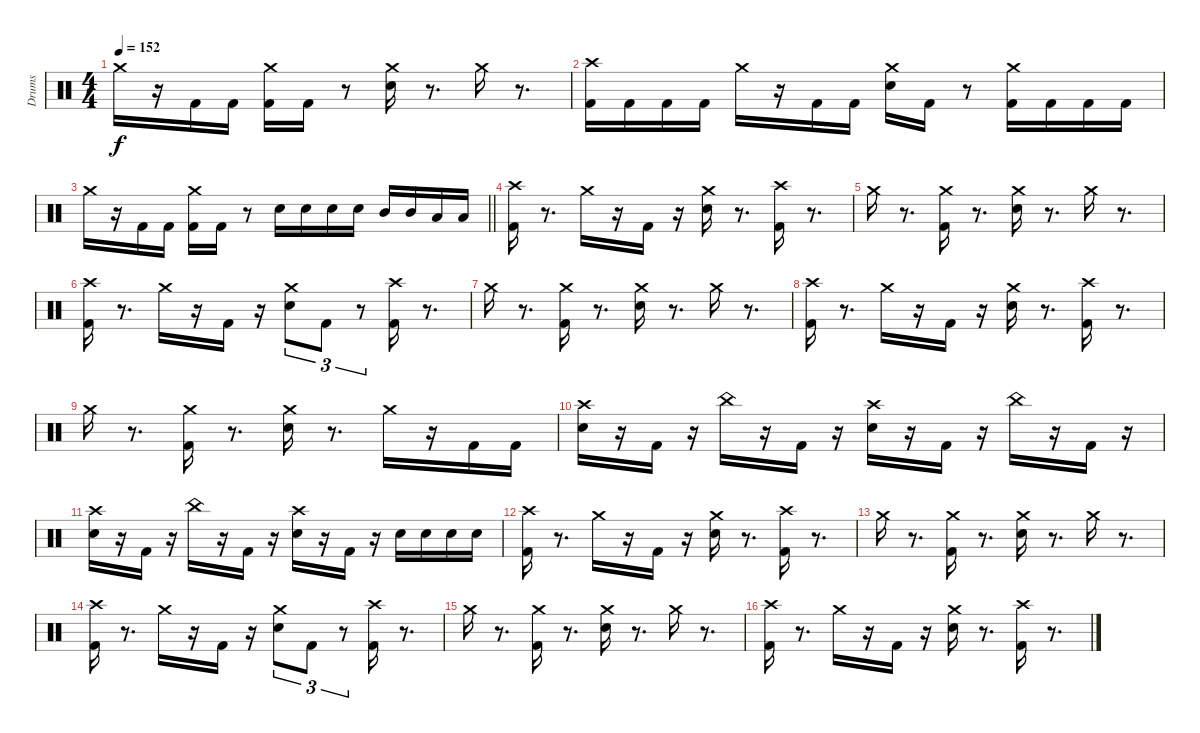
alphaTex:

\track ("Drums" "Drums") {instrument percussion}
\staff {score}
\articulation defaults
\ts (4 4)
\tempo 152
\clef neutral
\ks c "Crash medium (hit)".16{dy f}
r.16 "Kick (hit) 2".16 "Kick (hit) 2".16 ("Kick (hit) 2" "Crash medium (hit)").16 "Kick (hit) 2".16 r.8 ("Snare (hit) 2" "Crash medium (hit)").16 r.8{d} "Crash medium (hit)".16 r.8{d} |
("Kick (hit) 2" "Crash high (hit)").16 "Kick (hit) 2".16 "Kick (hit) 2".16 "Kick (hit) 2".16 "Crash medium (hit)".16 r.16 "Kick (hit) 2".16 "Kick (hit) 2".16 ("Snare (hit) 2" "Crash medium (hit)").16 "Kick (hit) 2".16 r.8 ("Kick (hit) 2" "Crash medium (hit)").16 "Kick (hit) 2".16 "Kick (hit) 2".16 "Kick (hit) 2".16 |
\barLineRight lightlight "Crash medium (hit)".16
r.16 "Kick (hit) 2".16 "Kick (hit) 2".16 ("Kick (hit) 2" "Crash medium (hit)").16 "Kick (hit) 2".16 r.8 "Snare (hit) 2".16 "Snare (hit) 2".16 "Snare (hit) 2".16 "Snare (hit) 2".16 "Mid Tom (hit)".16 "Mid Tom (hit)".16 "Low Tom (hit)".16 "Low Tom (hit)".16 |
\section ("" " ")
("Kick (hit) 2" "Crash high (hit)").16 r.8{d} "Crash medium (hit)".16 r.16 "Kick (hit) 2".16 r.16 ("Snare (hit) 2" "Crash medium (hit)").16 r.8{d} ("Kick (hit) 2" "Crash high (hit)").16 r.8{d} |
"Crash medium (hit)".16 r.8{d} ("Kick (hit) 2" "Crash medium (hit)").16 r.8{d} ("Snare (hit) 2" "Crash medium (hit)").16 r.8{d} "Crash medium (hit)".16 r.8{d} |
("Kick (hit) 2" "Crash high (hit)").16 r.8{d} "Crash medium (hit)".16 r.16 "Kick (hit) 2".16 r.16 ("Snare (hit) 2" "Crash medium (hit)").8{tu (3 2)} "Kick (hit) 2".8{tu (3 2)} r.8{tu (3 2)} ("Kick (hit) 2" "Crash high (hit)").16 r.8{d} |
"Crash medium (hit)".16 r.8{d} ("Kick (hit) 2" "Crash medium (hit)").16 r.8{d} ("Snare (hit) 2" "Crash medium (hit)").16 r.8{d} "Crash medium (hit)".16 r.8{d} |
("Kick (hit) 2" "Crash high (hit)").16 r.8{d} "Crash medium (hit)".16 r.16 "Kick (hit) 2".16 r.16 ("Snare (hit) 2" "Crash medium (hit)").16 r.8{d} ("Kick (hit) 2" "Crash high (hit)").16 r.8{d} |
"Crash medium (hit)".16 r.8{d} ("Kick (hit) 2" "Crash medium (hit)").16 r.8{d} ("Snare (hit) 2" "Crash medium (hit)").16 r.8{d} "Crash medium (hit)".16 r.16 "Kick (hit) 2".16 "Kick (hit) 2".16 |
("Snare (hit) 2" "Crash high (hit)").16 r.16 "Kick (hit) 2".16 r.16 "China (hit)".16 r.16 "Kick (hit) 2".16 r.16 ("Snare (hit) 2" "Crash high (hit)").16 r.16 "Kick (hit) 2".16 r.16 "China (hit)".16 r.16 "Kick (hit) 2".16 r.16 |
("Snare (hit) 2" "Crash high (hit)").16 r.16 "Kick (hit) 2".16 r.16 "China (hit)".16 r.16 "Kick (hit) 2".16 r.16 ("Snare (hit) 2" "Crash high (hit)").16 r.16 "Kick (hit) 2".16 r.16 "Snare (hit) 2".16 "Snare (hit) 2".16 "Snare (hit) 2".16 "Snare (hit) 2".16 |
("Kick (hit) 2" "Crash high (hit)").16 r.8{d} "Crash medium (hit)".16 r.16 "Kick (hit) 2".16 r.16 ("Snare (hit) 2" "Crash medium (hit)").16 r.8{d} ("Kick (hit) 2" "Crash high (hit)").16 r.8{d} |
"Crash medium (hit)".16 r.8{d} ("Kick (hit) 2" "Crash medium (hit)").16 r.8{d} ("Snare (hit) 2" "Crash medium (hit)").16 r.8{d} "Crash medium (hit)".16 r.8{d} |
("Kick (hit) 2" "Crash high (hit)").16 r.8{d} "Crash medium (hit)".16 r.16 "Kick (hit) 2".16 r.16 ("Snare (hit) 2" "Crash medium (hit)").8{tu (3 2)} "Kick (hit) 2".8{tu (3 2)} r.8{tu (3 2)} ("Kick (hit) 2" "Crash high (hit)").16 r.8{d} |
"Crash medium (hit)".16 r.8{d} ("Kick (hit) 2" "Crash medium (hit)").16 r.8{d} ("Snare (hit) 2" "Crash medium (hit)").16 r.8{d} "Crash medium (hit)".16 r.8{d} |
("Kick (hit) 2" "Crash high (hit)").16 r.8{d} "Crash medium (hit)".16 r.16 "Kick (hit) 2".16 r.16 ("Snare (hit) 2" "Crash medium (hit)").16 r.8{d} ("Kick (hit) 2" "Crash high (hit)").16 r.8{d}
